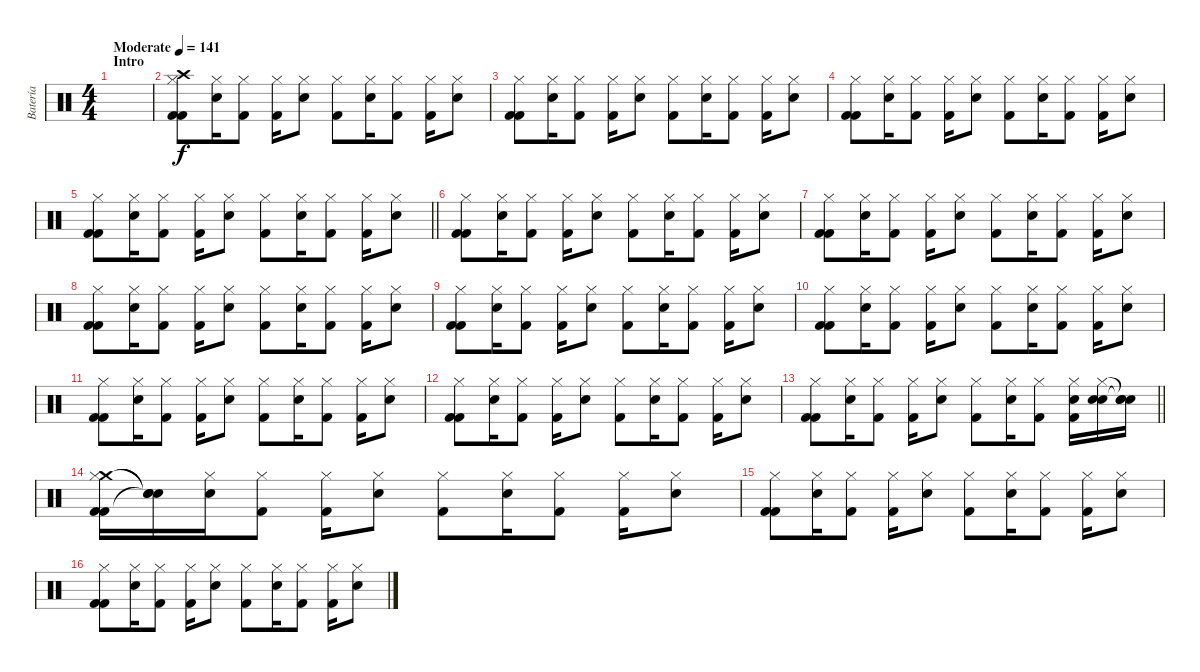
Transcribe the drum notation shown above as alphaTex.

\track ("Batería" "Batería") {instrument percussion}
\staff {score}
\articulation defaults
\ts (4 4)
\section ("" "Intro")
\tempo (141 "Moderate")
\clef neutral
\ks c
|
("Crash high (hit)" "Hi-Hat (closed)" "Kick (hit) 2" "Kick (hit) 2").8 ("Hi-Hat (closed)" "Electric Snare (hit)").16 ("Hi-Hat (closed)" "Kick (hit) 2").8 ("Hi-Hat (closed)" "Kick (hit) 2").16 ("Hi-Hat (closed)" "Electric Snare (hit)").8 ("Hi-Hat (closed)" "Kick (hit) 2").8 ("Hi-Hat (closed)" "Electric Snare (hit)").16 ("Hi-Hat (closed)" "Kick (hit) 2").8 ("Hi-Hat (closed)" "Kick (hit) 2").16 ("Hi-Hat (closed)" "Electric Snare (hit)").8 |
("Hi-Hat (closed)" "Kick (hit) 2" "Kick (hit) 2").8 ("Hi-Hat (closed)" "Electric Snare (hit)").16 ("Hi-Hat (closed)" "Kick (hit) 2").8 ("Hi-Hat (closed)" "Kick (hit) 2").16 ("Hi-Hat (closed)" "Electric Snare (hit)").8 ("Hi-Hat (closed)" "Kick (hit) 2").8 ("Hi-Hat (closed)" "Electric Snare (hit)").16 ("Hi-Hat (closed)" "Kick (hit) 2").8 ("Hi-Hat (closed)" "Kick (hit) 2").16 ("Hi-Hat (closed)" "Electric Snare (hit)").8 |
("Hi-Hat (closed)" "Kick (hit) 2" "Kick (hit) 2").8 ("Hi-Hat (closed)" "Electric Snare (hit)").16 ("Hi-Hat (closed)" "Kick (hit) 2").8 ("Hi-Hat (closed)" "Kick (hit) 2").16 ("Hi-Hat (closed)" "Electric Snare (hit)").8 ("Hi-Hat (closed)" "Kick (hit) 2").8 ("Hi-Hat (closed)" "Electric Snare (hit)").16 ("Hi-Hat (closed)" "Kick (hit) 2").8 ("Hi-Hat (closed)" "Kick (hit) 2").16 ("Hi-Hat (closed)" "Electric Snare (hit)").8 |
\barLineRight lightlight
("Hi-Hat (closed)" "Kick (hit) 2" "Kick (hit) 2").8 ("Hi-Hat (closed)" "Electric Snare (hit)").16 ("Hi-Hat (closed)" "Kick (hit) 2").8 ("Hi-Hat (closed)" "Kick (hit) 2").16 ("Hi-Hat (closed)" "Electric Snare (hit)").8 ("Hi-Hat (closed)" "Kick (hit) 2").8 ("Hi-Hat (closed)" "Electric Snare (hit)").16 ("Hi-Hat (closed)" "Kick (hit) 2").8 ("Hi-Hat (closed)" "Kick (hit) 2").16 ("Hi-Hat (closed)" "Electric Snare (hit)").8 |
\section ("" "")
("Hi-Hat (closed)" "Kick (hit) 2" "Kick (hit) 2").8 ("Hi-Hat (closed)" "Electric Snare (hit)").16 ("Hi-Hat (closed)" "Kick (hit) 2").8 ("Hi-Hat (closed)" "Kick (hit) 2").16 ("Hi-Hat (closed)" "Electric Snare (hit)").8 ("Hi-Hat (closed)" "Kick (hit) 2").8 ("Hi-Hat (closed)" "Electric Snare (hit)").16 ("Hi-Hat (closed)" "Kick (hit) 2").8 ("Hi-Hat (closed)" "Kick (hit) 2").16 ("Hi-Hat (closed)" "Electric Snare (hit)").8 |
("Hi-Hat (closed)" "Kick (hit) 2" "Kick (hit) 2").8 ("Hi-Hat (closed)" "Electric Snare (hit)").16 ("Hi-Hat (closed)" "Kick (hit) 2").8 ("Hi-Hat (closed)" "Kick (hit) 2").16 ("Hi-Hat (closed)" "Electric Snare (hit)").8 ("Hi-Hat (closed)" "Kick (hit) 2").8 ("Hi-Hat (closed)" "Electric Snare (hit)").16 ("Hi-Hat (closed)" "Kick (hit) 2").8 ("Hi-Hat (closed)" "Kick (hit) 2").16 ("Hi-Hat (closed)" "Electric Snare (hit)").8 |
("Hi-Hat (closed)" "Kick (hit) 2" "Kick (hit) 2").8 ("Hi-Hat (closed)" "Electric Snare (hit)").16 ("Hi-Hat (closed)" "Kick (hit) 2").8 ("Hi-Hat (closed)" "Kick (hit) 2").16 ("Hi-Hat (closed)" "Electric Snare (hit)").8 ("Hi-Hat (closed)" "Kick (hit) 2").8 ("Hi-Hat (closed)" "Electric Snare (hit)").16 ("Hi-Hat (closed)" "Kick (hit) 2").8 ("Hi-Hat (closed)" "Kick (hit) 2").16 ("Hi-Hat (closed)" "Electric Snare (hit)").8 |
("Hi-Hat (closed)" "Kick (hit) 2" "Kick (hit) 2").8 ("Hi-Hat (closed)" "Electric Snare (hit)").16 ("Hi-Hat (closed)" "Kick (hit) 2").8 ("Hi-Hat (closed)" "Kick (hit) 2").16 ("Hi-Hat (closed)" "Electric Snare (hit)").8 ("Hi-Hat (closed)" "Kick (hit) 2").8 ("Hi-Hat (closed)" "Electric Snare (hit)").16 ("Hi-Hat (closed)" "Kick (hit) 2").8 ("Hi-Hat (closed)" "Kick (hit) 2").16 ("Hi-Hat (closed)" "Electric Snare (hit)").8 |
("Hi-Hat (closed)" "Kick (hit) 2" "Kick (hit) 2").8 ("Hi-Hat (closed)" "Electric Snare (hit)").16 ("Hi-Hat (closed)" "Kick (hit) 2").8 ("Hi-Hat (closed)" "Kick (hit) 2").16 ("Hi-Hat (closed)" "Electric Snare (hit)").8 ("Hi-Hat (closed)" "Kick (hit) 2").8 ("Hi-Hat (closed)" "Electric Snare (hit)").16 ("Hi-Hat (closed)" "Kick (hit) 2").8 ("Hi-Hat (closed)" "Kick (hit) 2").16 ("Hi-Hat (closed)" "Electric Snare (hit)").8 |
("Hi-Hat (closed)" "Kick (hit) 2" "Kick (hit) 2").8 ("Hi-Hat (closed)" "Electric Snare (hit)").16 ("Hi-Hat (closed)" "Kick (hit) 2").8 ("Hi-Hat (closed)" "Kick (hit) 2").16 ("Hi-Hat (closed)" "Electric Snare (hit)").8 ("Hi-Hat (closed)" "Kick (hit) 2").8 ("Hi-Hat (closed)" "Electric Snare (hit)").16 ("Hi-Hat (closed)" "Kick (hit) 2").8 ("Hi-Hat (closed)" "Kick (hit) 2").16 ("Hi-Hat (closed)" "Electric Snare (hit)").8 |
("Hi-Hat (closed)" "Kick (hit) 2" "Kick (hit) 2").8 ("Hi-Hat (closed)" "Electric Snare (hit)").16 ("Hi-Hat (closed)" "Kick (hit) 2").8 ("Hi-Hat (closed)" "Kick (hit) 2").16 ("Hi-Hat (closed)" "Electric Snare (hit)").8 ("Hi-Hat (closed)" "Kick (hit) 2").8 ("Hi-Hat (closed)" "Electric Snare (hit)").16 ("Hi-Hat (closed)" "Kick (hit) 2").8 ("Hi-Hat (closed)" "Kick (hit) 2").16 ("Hi-Hat (closed)" "Electric Snare (hit)").8 |
\barLineRight lightlight
("Hi-Hat (closed)" "Kick (hit) 2" "Kick (hit) 2").8 ("Hi-Hat (closed)" "Electric Snare (hit)").16 ("Hi-Hat (closed)" "Kick (hit) 2").8 ("Hi-Hat (closed)" "Kick (hit) 2").16 ("Hi-Hat (closed)" "Electric Snare (hit)").8 ("Hi-Hat (closed)" "Kick (hit) 2").8 ("Hi-Hat (closed)" "Electric Snare (hit)").16 ("Hi-Hat (closed)" "Kick (hit) 2").8 ("Electric Snare (hit)" "Hi-Hat (closed)" "Kick (hit) 2").16 ("Electric Snare (hit)" "Hi-Hat (closed)" "Electric Snare (hit)").16 ("Electric Snare (hit)" "Snare (hit)"{t} "Snare (hit)"{t}).16 |
\section ("" "")
("Crash medium (hit)" "Hi-Hat (closed)" "Kick (hit) 2" "Kick (hit) 2").16 ("Snare (hit)"{t} "Snare (hit)"{t} "Snare (hit)"{t}).16 ("Hi-Hat (closed)" "Electric Snare (hit)").16 ("Hi-Hat (closed)" "Kick (hit) 2").8 ("Hi-Hat (closed)" "Kick (hit) 2").16 ("Hi-Hat (closed)" "Electric Snare (hit)").8 ("Hi-Hat (closed)" "Kick (hit) 2").8 ("Hi-Hat (closed)" "Electric Snare (hit)").16 ("Hi-Hat (closed)" "Kick (hit) 2").8 ("Hi-Hat (closed)" "Kick (hit) 2").16 ("Hi-Hat (closed)" "Electric Snare (hit)").8 |
("Hi-Hat (closed)" "Kick (hit) 2" "Kick (hit) 2").8 ("Hi-Hat (closed)" "Electric Snare (hit)").16 ("Hi-Hat (closed)" "Kick (hit) 2").8 ("Hi-Hat (closed)" "Kick (hit) 2").16 ("Hi-Hat (closed)" "Electric Snare (hit)").8 ("Hi-Hat (closed)" "Kick (hit) 2").8 ("Hi-Hat (closed)" "Electric Snare (hit)").16 ("Hi-Hat (closed)" "Kick (hit) 2").8 ("Hi-Hat (closed)" "Kick (hit) 2").16 ("Hi-Hat (closed)" "Electric Snare (hit)").8 |
("Hi-Hat (closed)" "Kick (hit) 2" "Kick (hit) 2").8 ("Hi-Hat (closed)" "Electric Snare (hit)").16 ("Hi-Hat (closed)" "Kick (hit) 2").8 ("Hi-Hat (closed)" "Kick (hit) 2").16 ("Hi-Hat (closed)" "Electric Snare (hit)").8 ("Hi-Hat (closed)" "Kick (hit) 2").8 ("Hi-Hat (closed)" "Electric Snare (hit)").16 ("Hi-Hat (closed)" "Kick (hit) 2").8 ("Hi-Hat (closed)" "Kick (hit) 2").16 ("Hi-Hat (closed)" "Electric Snare (hit)").8
